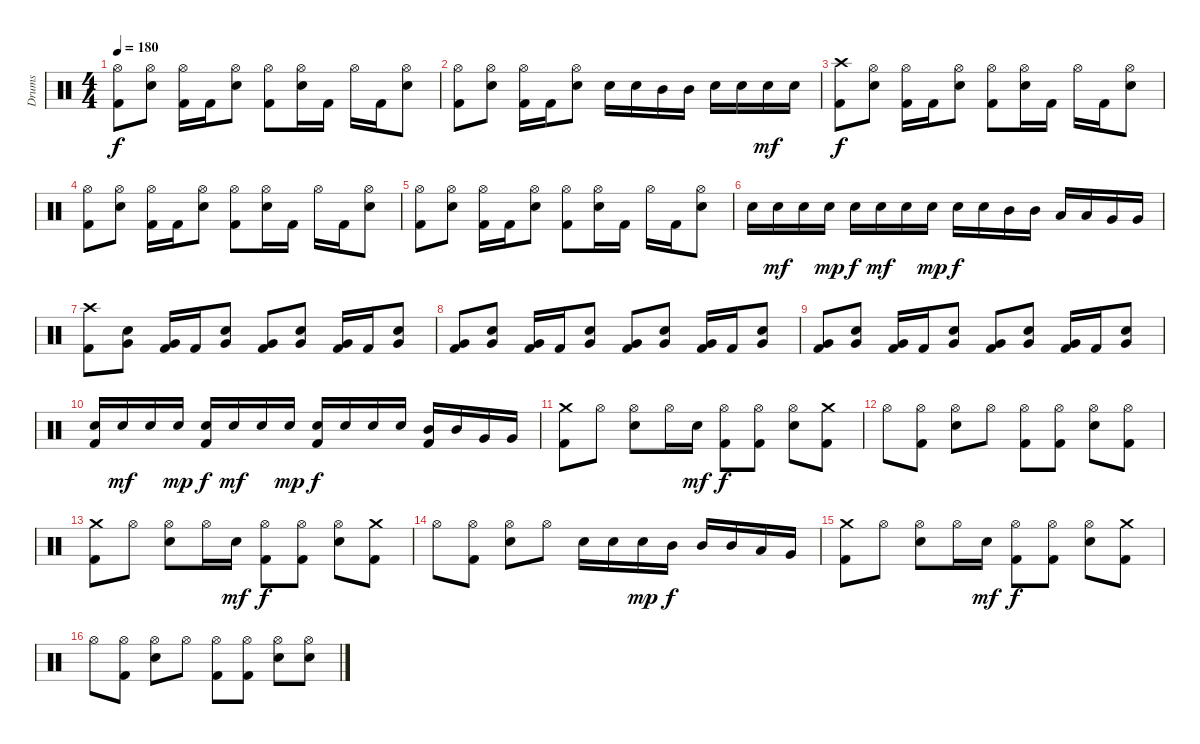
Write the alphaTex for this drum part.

\track ("Drums" "Drums") {instrument percussion}
\staff {score}
\articulation defaults
\ts (4 4)
\tempo 180
\clef neutral
\ks c
("Hi-Hat (open)" "Kick (hit) 2").8{dy f} ("Hi-Hat (open)" "Electric Snare (hit)").8 ("Hi-Hat (open)" "Kick (hit) 2").16 "Kick (hit) 2".16 ("Hi-Hat (open)" "Electric Snare (hit)").8 ("Hi-Hat (open)" "Kick (hit) 2").8 ("Hi-Hat (open)" "Electric Snare (hit)").16 "Kick (hit) 2".16 "Hi-Hat (open)".16 "Kick (hit) 2".16 ("Hi-Hat (open)" "Electric Snare (hit)").8 |
("Hi-Hat (open)" "Kick (hit) 2").8 ("Hi-Hat (open)" "Electric Snare (hit)").8 ("Hi-Hat (open)" "Kick (hit) 2").16 "Kick (hit) 2".16 ("Hi-Hat (open)" "Electric Snare (hit)").8 "Electric Snare (hit)".16 "Electric Snare (hit)".16 "Mid Tom (hit)".16 "Mid Tom (hit)".16 "Electric Snare (hit)".16 "Electric Snare (hit)".16 "Electric Snare (hit)".16{dy mf} "Electric Snare (hit)".16 |
("Crash high (hit)" "Kick (hit) 2").8{dy f} ("Hi-Hat (open)" "Electric Snare (hit)").8 ("Hi-Hat (open)" "Kick (hit) 2").16 "Kick (hit) 2".16 ("Hi-Hat (open)" "Electric Snare (hit)").8 ("Hi-Hat (open)" "Kick (hit) 2").8 ("Hi-Hat (open)" "Electric Snare (hit)").16 "Kick (hit) 2".16 "Hi-Hat (open)".16 "Kick (hit) 2".16 ("Hi-Hat (open)" "Electric Snare (hit)").8 |
("Hi-Hat (open)" "Kick (hit) 2").8 ("Hi-Hat (open)" "Electric Snare (hit)").8 ("Hi-Hat (open)" "Kick (hit) 2").16 "Kick (hit) 2".16 ("Hi-Hat (open)" "Electric Snare (hit)").8 ("Hi-Hat (open)" "Kick (hit) 2").8 ("Hi-Hat (open)" "Electric Snare (hit)").16 "Kick (hit) 2".16 "Hi-Hat (open)".16 "Kick (hit) 2".16 ("Hi-Hat (open)" "Electric Snare (hit)").8 |
("Hi-Hat (open)" "Kick (hit) 2").8 ("Hi-Hat (open)" "Electric Snare (hit)").8 ("Hi-Hat (open)" "Kick (hit) 2").16 "Kick (hit) 2".16 ("Hi-Hat (open)" "Electric Snare (hit)").8 ("Hi-Hat (open)" "Kick (hit) 2").8 ("Hi-Hat (open)" "Electric Snare (hit)").16 "Kick (hit) 2".16 "Hi-Hat (open)".16 "Kick (hit) 2".16 ("Hi-Hat (open)" "Electric Snare (hit)").8 |
"Electric Snare (hit)".16 "Electric Snare (hit)".16{dy mf} "Electric Snare (hit)".16 "Electric Snare (hit)".16{dy mp} "Electric Snare (hit)".16{dy f} "Electric Snare (hit)".16{dy mf} "Electric Snare (hit)".16 "Electric Snare (hit)".16{dy mp} "Electric Snare (hit)".16{dy f} "Electric Snare (hit)".16 "Mid Tom (hit)".16 "Mid Tom (hit)".16 "Low Tom (hit)".16 "Low Tom (hit)".16 "Very Low Tom (hit)".16 "Very Low Tom (hit)".16 |
("Crash high (hit)" "Kick (hit) 2").8 ("Very Low Tom (hit)" "Electric Snare (hit)").8 ("Very Low Tom (hit)" "Kick (hit) 2").16 "Kick (hit) 2".16 ("Very Low Tom (hit)" "Electric Snare (hit)").8 ("Very Low Tom (hit)" "Kick (hit) 2").8 ("Very Low Tom (hit)" "Electric Snare (hit)").8 ("Very Low Tom (hit)" "Kick (hit) 2").16 "Kick (hit) 2".16 ("Very Low Tom (hit)" "Electric Snare (hit)").8 |
("Very Low Tom (hit)" "Kick (hit) 2").8 ("Very Low Tom (hit)" "Electric Snare (hit)").8 ("Very Low Tom (hit)" "Kick (hit) 2").16 "Kick (hit) 2".16 ("Very Low Tom (hit)" "Electric Snare (hit)").8 ("Very Low Tom (hit)" "Kick (hit) 2").8 ("Very Low Tom (hit)" "Electric Snare (hit)").8 ("Very Low Tom (hit)" "Kick (hit) 2").16 "Kick (hit) 2".16 ("Very Low Tom (hit)" "Electric Snare (hit)").8 |
("Very Low Tom (hit)" "Kick (hit) 2").8 ("Very Low Tom (hit)" "Electric Snare (hit)").8 ("Very Low Tom (hit)" "Kick (hit) 2").16 "Kick (hit) 2".16 ("Very Low Tom (hit)" "Electric Snare (hit)").8 ("Very Low Tom (hit)" "Kick (hit) 2").8 ("Very Low Tom (hit)" "Electric Snare (hit)").8 ("Very Low Tom (hit)" "Kick (hit) 2").16 "Kick (hit) 2".16 ("Very Low Tom (hit)" "Electric Snare (hit)").8 |
("Electric Snare (hit)" "Kick (hit) 2").16 "Electric Snare (hit)".16{dy mf} "Electric Snare (hit)".16 "Electric Snare (hit)".16{dy mp} ("Electric Snare (hit)" "Kick (hit) 2").16{dy f} "Electric Snare (hit)".16{dy mf} "Electric Snare (hit)".16 "Electric Snare (hit)".16{dy mp} ("Electric Snare (hit)" "Kick (hit) 2").16{dy f} "Electric Snare (hit)".16 "Electric Snare (hit)".16 "Electric Snare (hit)".16 ("Mid Tom (hit)" "Kick (hit) 2").16 "Mid Tom (hit)".16 "Very Low Tom (hit)".16 "Very Low Tom (hit)".16 |
("Crash medium (hit)" "Kick (hit) 2").8 "Hi-Hat (open)".8 ("Hi-Hat (open)" "Electric Snare (hit)").8 "Hi-Hat (open)".16 "Electric Snare (hit)".16{dy mf} ("Hi-Hat (open)" "Kick (hit) 2").8{dy f} ("Hi-Hat (open)" "Kick (hit) 2").8 ("Hi-Hat (open)" "Electric Snare (hit)").8 ("Crash medium (hit)" "Kick (hit) 2").8 |
"Hi-Hat (open)".8 ("Hi-Hat (open)" "Kick (hit) 2").8 ("Hi-Hat (open)" "Electric Snare (hit)").8 "Hi-Hat (open)".8 ("Hi-Hat (open)" "Kick (hit) 2").8 ("Hi-Hat (open)" "Kick (hit) 2").8 ("Hi-Hat (open)" "Electric Snare (hit)").8 ("Hi-Hat (open)" "Kick (hit) 2").8 |
("Crash medium (hit)" "Kick (hit) 2").8 "Hi-Hat (open)".8 ("Hi-Hat (open)" "Electric Snare (hit)").8 "Hi-Hat (open)".16 "Electric Snare (hit)".16{dy mf} ("Hi-Hat (open)" "Kick (hit) 2").8{dy f} ("Hi-Hat (open)" "Kick (hit) 2").8 ("Hi-Hat (open)" "Electric Snare (hit)").8 ("Crash medium (hit)" "Kick (hit) 2").8 |
"Hi-Hat (open)".8 ("Hi-Hat (open)" "Kick (hit) 2").8 ("Hi-Hat (open)" "Electric Snare (hit)").8 "Hi-Hat (open)".8 "Electric Snare (hit)".16 "Electric Snare (hit)".16 "Electric Snare (hit)".16{dy mp} "Mid Tom (hit)".16{dy f} "Mid Tom (hit)".16 "Mid Tom (hit)".16 "Low Tom (hit)".16 "Very Low Tom (hit)".16 |
("Crash medium (hit)" "Kick (hit) 2").8 "Hi-Hat (open)".8 ("Hi-Hat (open)" "Electric Snare (hit)").8 "Hi-Hat (open)".16 "Electric Snare (hit)".16{dy mf} ("Hi-Hat (open)" "Kick (hit) 2").8{dy f} ("Hi-Hat (open)" "Kick (hit) 2").8 ("Hi-Hat (open)" "Electric Snare (hit)").8 ("Crash medium (hit)" "Kick (hit) 2").8 |
"Hi-Hat (open)".8 ("Hi-Hat (open)" "Kick (hit) 2").8 ("Hi-Hat (open)" "Electric Snare (hit)").8 "Hi-Hat (open)".8 ("Hi-Hat (open)" "Kick (hit) 2").8 ("Hi-Hat (open)" "Kick (hit) 2").8 ("Hi-Hat (open)" "Electric Snare (hit)").8 ("Hi-Hat (open)" "Electric Snare (hit)").8
